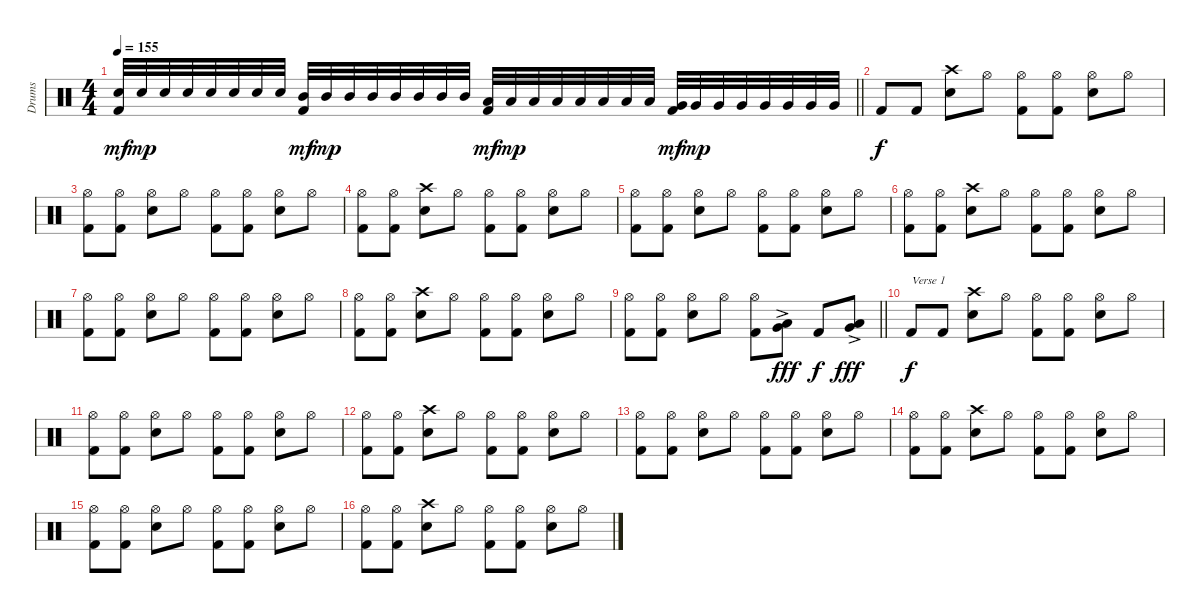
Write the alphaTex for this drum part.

\track ("Drums" "Drums") {instrument percussion}
\staff {score}
\articulation defaults
\ts (4 4)
\tempo 155
\clef neutral
\barLineRight lightlight
\ks c
("Snare (hit) 2" "Kick (hit) 2").32{dy mf} "Snare (hit) 2".32{dy mp} "Snare (hit) 2".32 "Snare (hit) 2".32 "Snare (hit) 2".32 "Snare (hit) 2".32 "Snare (hit) 2".32 "Snare (hit) 2".32 ("Mid Tom (hit)" "Kick (hit) 2").32{dy mf} "Mid Tom (hit)".32{dy mp} "Mid Tom (hit)".32 "Mid Tom (hit)".32 "Mid Tom (hit)".32 "Mid Tom (hit)".32 "Mid Tom (hit)".32 "Mid Tom (hit)".32 ("Low Tom (hit)" "Kick (hit) 2").32{dy mf} "Low Tom (hit)".32{dy mp} "Low Tom (hit)".32 "Low Tom (hit)".32 "Low Tom (hit)".32 "Low Tom (hit)".32 "Low Tom (hit)".32 "Low Tom (hit)".32 ("Very Low Tom (hit)" "Kick (hit) 2").32{dy mf} "Very Low Tom (hit)".32{dy mp} "Very Low Tom (hit)".32 "Very Low Tom (hit)".32 "Very Low Tom (hit)".32 "Very Low Tom (hit)".32 "Very Low Tom (hit)".32 "Very Low Tom (hit)".32 |
"Kick (hit) 2".8{dy f} "Kick (hit) 2".8 ("Crash high (hit)" "Snare (hit) 2").8 "Hi-Hat (open)".8 ("Hi-Hat (open)" "Kick (hit) 2").8 ("Hi-Hat (open)" "Kick (hit) 2").8 ("Hi-Hat (open)" "Snare (hit) 2").8 "Hi-Hat (open)".8 |
("Hi-Hat (open)" "Kick (hit) 2").8 ("Hi-Hat (open)" "Kick (hit) 2").8 ("Hi-Hat (open)" "Snare (hit) 2").8 "Hi-Hat (open)".8 ("Hi-Hat (open)" "Kick (hit) 2").8 ("Hi-Hat (open)" "Kick (hit) 2").8 ("Hi-Hat (open)" "Snare (hit) 2").8 "Hi-Hat (open)".8 |
("Hi-Hat (open)" "Kick (hit) 2").8 ("Hi-Hat (open)" "Kick (hit) 2").8 ("Crash high (hit)" "Snare (hit) 2").8 "Hi-Hat (open)".8 ("Hi-Hat (open)" "Kick (hit) 2").8 ("Hi-Hat (open)" "Kick (hit) 2").8 ("Hi-Hat (open)" "Snare (hit) 2").8 "Hi-Hat (open)".8 |
("Hi-Hat (open)" "Kick (hit) 2").8 ("Hi-Hat (open)" "Kick (hit) 2").8 ("Hi-Hat (open)" "Snare (hit) 2").8 "Hi-Hat (open)".8 ("Hi-Hat (open)" "Kick (hit) 2").8 ("Hi-Hat (open)" "Kick (hit) 2").8 ("Hi-Hat (open)" "Snare (hit) 2").8 "Hi-Hat (open)".8 |
("Hi-Hat (open)" "Kick (hit) 2").8 ("Hi-Hat (open)" "Kick (hit) 2").8 ("Crash high (hit)" "Snare (hit) 2").8 "Hi-Hat (open)".8 ("Hi-Hat (open)" "Kick (hit) 2").8 ("Hi-Hat (open)" "Kick (hit) 2").8 ("Hi-Hat (open)" "Snare (hit) 2").8 "Hi-Hat (open)".8 |
("Hi-Hat (open)" "Kick (hit) 2").8 ("Hi-Hat (open)" "Kick (hit) 2").8 ("Hi-Hat (open)" "Snare (hit) 2").8 "Hi-Hat (open)".8 ("Hi-Hat (open)" "Kick (hit) 2").8 ("Hi-Hat (open)" "Kick (hit) 2").8 ("Hi-Hat (open)" "Snare (hit) 2").8 "Hi-Hat (open)".8 |
("Hi-Hat (open)" "Kick (hit) 2").8 ("Hi-Hat (open)" "Kick (hit) 2").8 ("Crash high (hit)" "Snare (hit) 2").8 "Hi-Hat (open)".8 ("Hi-Hat (open)" "Kick (hit) 2").8 ("Hi-Hat (open)" "Kick (hit) 2").8 ("Hi-Hat (open)" "Snare (hit) 2").8 "Hi-Hat (open)".8 |
\barLineRight lightlight
("Hi-Hat (open)" "Kick (hit) 2").8 ("Hi-Hat (open)" "Kick (hit) 2").8 ("Hi-Hat (open)" "Snare (hit) 2").8 "Hi-Hat (open)".8 ("Hi-Hat (open)" "Kick (hit) 2").8 ("Low Tom (hit)"{ac} "Very Low Tom (hit)").8{dy fff} "Kick (hit) 2".8{dy f} ("Low Tom (hit)"{ac} "Very Low Tom (hit)").8{dy fff} |
"Kick (hit) 2".8{txt "Verse 1" dy f} "Kick (hit) 2".8 ("Crash high (hit)" "Snare (hit) 2").8 "Hi-Hat (open)".8 ("Hi-Hat (open)" "Kick (hit) 2").8 ("Hi-Hat (open)" "Kick (hit) 2").8 ("Hi-Hat (open)" "Snare (hit) 2").8 "Hi-Hat (open)".8 |
("Hi-Hat (open)" "Kick (hit) 2").8 ("Hi-Hat (open)" "Kick (hit) 2").8 ("Hi-Hat (open)" "Snare (hit) 2").8 "Hi-Hat (open)".8 ("Hi-Hat (open)" "Kick (hit) 2").8 ("Hi-Hat (open)" "Kick (hit) 2").8 ("Hi-Hat (open)" "Snare (hit) 2").8 "Hi-Hat (open)".8 |
("Hi-Hat (open)" "Kick (hit) 2").8 ("Hi-Hat (open)" "Kick (hit) 2").8 ("Crash high (hit)" "Snare (hit) 2").8 "Hi-Hat (open)".8 ("Hi-Hat (open)" "Kick (hit) 2").8 ("Hi-Hat (open)" "Kick (hit) 2").8 ("Hi-Hat (open)" "Snare (hit) 2").8 "Hi-Hat (open)".8 |
("Hi-Hat (open)" "Kick (hit) 2").8 ("Hi-Hat (open)" "Kick (hit) 2").8 ("Hi-Hat (open)" "Snare (hit) 2").8 "Hi-Hat (open)".8 ("Hi-Hat (open)" "Kick (hit) 2").8 ("Hi-Hat (open)" "Kick (hit) 2").8 ("Hi-Hat (open)" "Snare (hit) 2").8 "Hi-Hat (open)".8 |
("Hi-Hat (open)" "Kick (hit) 2").8 ("Hi-Hat (open)" "Kick (hit) 2").8 ("Crash high (hit)" "Snare (hit) 2").8 "Hi-Hat (open)".8 ("Hi-Hat (open)" "Kick (hit) 2").8 ("Hi-Hat (open)" "Kick (hit) 2").8 ("Hi-Hat (open)" "Snare (hit) 2").8 "Hi-Hat (open)".8 |
("Hi-Hat (open)" "Kick (hit) 2").8 ("Hi-Hat (open)" "Kick (hit) 2").8 ("Hi-Hat (open)" "Snare (hit) 2").8 "Hi-Hat (open)".8 ("Hi-Hat (open)" "Kick (hit) 2").8 ("Hi-Hat (open)" "Kick (hit) 2").8 ("Hi-Hat (open)" "Snare (hit) 2").8 "Hi-Hat (open)".8 |
("Hi-Hat (open)" "Kick (hit) 2").8 ("Hi-Hat (open)" "Kick (hit) 2").8 ("Crash high (hit)" "Snare (hit) 2").8 "Hi-Hat (open)".8 ("Hi-Hat (open)" "Kick (hit) 2").8 ("Hi-Hat (open)" "Kick (hit) 2").8 ("Hi-Hat (open)" "Snare (hit) 2").8 "Hi-Hat (open)".8
